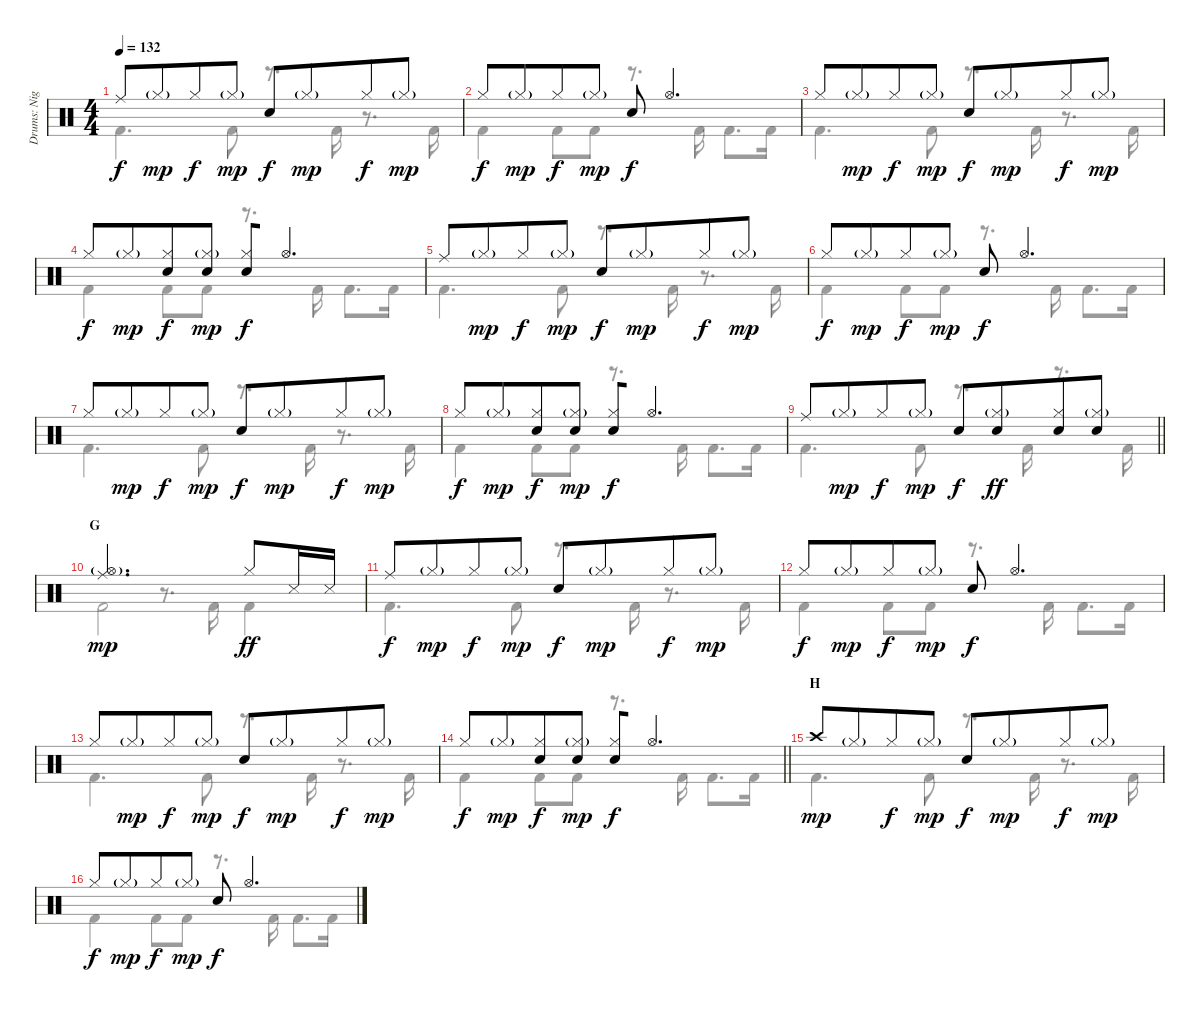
\track ("Drums: Nigel Ollson" "Drums: Nig") {instrument percussion}
\staff {score}
\articulation defaults
\voice
\ts (4 4)
\tempo 132
\clef neutral
\ks c "Ride (middle)".8{dy f} "Hi-Hat (closed)"{g}.8{dy mp beam merge} "Hi-Hat (closed)".8{dy f} "Hi-Hat (closed)"{g}.8{dy mp} "Electric Snare (hit)".8{dy f} "Hi-Hat (closed)"{g}.8{dy mp beam merge} "Hi-Hat (closed)".8{dy f} "Hi-Hat (closed)"{g}.8{dy mp}
|
"Hi-Hat (closed)".8{dy f} "Hi-Hat (closed)"{g}.8{dy mp beam merge} "Hi-Hat (closed)".8{dy f} "Hi-Hat (closed)"{g}.8{dy mp} "Electric Snare (hit)".8{dy f} "Hi-Hat (open)".4{d} |
"Hi-Hat (closed)".8 "Hi-Hat (closed)"{g}.8{dy mp beam merge} "Hi-Hat (closed)".8{dy f} "Hi-Hat (closed)"{g}.8{dy mp} "Electric Snare (hit)".8{dy f} "Hi-Hat (closed)"{g}.8{dy mp beam merge} "Hi-Hat (closed)".8{dy f} "Hi-Hat (closed)"{g}.8{dy mp} |
"Hi-Hat (closed)".8{dy f} "Hi-Hat (closed)"{g}.8{dy mp beam merge} ("Hi-Hat (closed)" "Electric Snare (hit)").8{dy f} ("Hi-Hat (closed)"{g} "Electric Snare (hit)").8{dy mp} ("Hi-Hat (closed)" "Electric Snare (hit)").8{dy f beam merge} "Hi-Hat (open)".4{d} |
"Ride (middle)".8 "Hi-Hat (closed)"{g}.8{dy mp beam merge} "Hi-Hat (closed)".8{dy f} "Hi-Hat (closed)"{g}.8{dy mp} "Electric Snare (hit)".8{dy f} "Hi-Hat (closed)"{g}.8{dy mp beam merge} "Hi-Hat (closed)".8{dy f} "Hi-Hat (closed)"{g}.8{dy mp} |
"Hi-Hat (closed)".8{dy f} "Hi-Hat (closed)"{g}.8{dy mp beam merge} "Hi-Hat (closed)".8{dy f} "Hi-Hat (closed)"{g}.8{dy mp} "Electric Snare (hit)".8{dy f} "Hi-Hat (open)".4{d} |
"Hi-Hat (closed)".8 "Hi-Hat (closed)"{g}.8{dy mp beam merge} "Hi-Hat (closed)".8{dy f} "Hi-Hat (closed)"{g}.8{dy mp} "Electric Snare (hit)".8{dy f} "Hi-Hat (closed)"{g}.8{dy mp beam merge} "Hi-Hat (closed)".8{dy f} "Hi-Hat (closed)"{g}.8{dy mp} |
"Hi-Hat (closed)".8{dy f} "Hi-Hat (closed)"{g}.8{dy mp beam merge} ("Hi-Hat (closed)" "Electric Snare (hit)").8{dy f} ("Hi-Hat (closed)"{g} "Electric Snare (hit)").8{dy mp} ("Hi-Hat (closed)" "Electric Snare (hit)").8{dy f beam merge} "Hi-Hat (open)".4{d} |
\barLineRight lightlight "Ride (middle)".8 "Hi-Hat (closed)"{g}.8{dy mp beam merge} "Hi-Hat (closed)".8{dy f} "Hi-Hat (closed)"{g}.8{dy mp} "Electric Snare (hit)".8{dy f}
("Hi-Hat (closed)"{g} "Electric Snare (hit)").8{dy ff beam merge} ("Hi-Hat (closed)" "Electric Snare (hit)").8 ("Hi-Hat (closed)"{g} "Snare (hit) 2").8 |
\section ("" "G")
("Ride (middle)" "Hi-Hat (open)"{g}).2{d dy mp} "Hi-Hat (closed)".8{dy ff} "Snare (side stick) 3".16 "Snare (side stick) 3".16 |
"Ride (middle)".8{dy f} "Hi-Hat (closed)"{g}.8{dy mp beam merge} "Hi-Hat (closed)".8{dy f} "Hi-Hat (closed)"{g}.8{dy mp} "Electric Snare (hit)".8{dy f} "Hi-Hat (closed)"{g}.8{dy mp beam merge} "Hi-Hat (closed)".8{dy f} "Hi-Hat (closed)"{g}.8{dy mp} |
"Hi-Hat (closed)".8{dy f} "Hi-Hat (closed)"{g}.8{dy mp beam merge} "Hi-Hat (closed)".8{dy f} "Hi-Hat (closed)"{g}.8{dy mp} "Electric Snare (hit)".8{dy f} "Hi-Hat (open)".4{d} |
"Hi-Hat (closed)".8 "Hi-Hat (closed)"{g}.8{dy mp beam merge} "Hi-Hat (closed)".8{dy f} "Hi-Hat (closed)"{g}.8{dy mp} "Electric Snare (hit)".8{dy f} "Hi-Hat (closed)"{g}.8{dy mp beam merge} "Hi-Hat (closed)".8{dy f} "Hi-Hat (closed)"{g}.8{dy mp} |
\barLineRight lightlight "Hi-Hat (closed)".8{dy f} "Hi-Hat (closed)"{g}.8{dy mp beam merge}
("Hi-Hat (closed)" "Electric Snare (hit)").8{dy f} ("Hi-Hat (closed)"{g} "Electric Snare (hit)").8{dy mp} ("Hi-Hat (closed)" "Electric Snare (hit)").8{dy f beam merge} "Hi-Hat (open)".4{d} |
\section ("" "H")
"Crash high (hit)".8{dy mp} "Hi-Hat (closed)"{g}.8{beam merge} "Hi-Hat (closed)".8{dy f} "Hi-Hat (closed)"{g}.8{dy mp} "Electric Snare (hit)".8{dy f} "Hi-Hat (closed)"{g}.8{dy mp beam merge} "Hi-Hat (closed)".8{dy f} "Hi-Hat (closed)"{g}.8{dy mp} |
"Hi-Hat (closed)".8{dy f} "Hi-Hat (closed)"{g}.8{dy mp beam merge} "Hi-Hat (closed)".8{dy f} "Hi-Hat (closed)"{g}.8{dy mp} "Electric Snare (hit)".8{dy f} "Hi-Hat (open)".4{d}
\voice
\clef neutral
\ottava regular
\simile none
\ks c "Kick (hit) 2".4{d dy f} "Kick (hit) 2".8
r.8{d} "Kick (hit) 2".16 r.8{d} "Kick (hit) 2".16 |
"Kick (hit) 2".4 "Kick (hit) 2".8 "Kick (hit) 2".8 r.8{d} "Kick (hit) 2".16 "Kick (hit) 2".8{d} "Kick (hit) 2".16 |
"Kick (hit) 2".4{d} "Kick (hit) 2".8 r.8{d} "Kick (hit) 2".16 r.8{d} "Kick (hit) 2".16 |
"Kick (hit) 2".4 "Kick (hit) 2".8 "Kick (hit) 2".8 r.8{d} "Kick (hit) 2".16 "Kick (hit) 2".8{d} "Kick (hit) 2".16 |
"Kick (hit) 2".4{d} "Kick (hit) 2".8 r.8{d} "Kick (hit) 2".16 r.8{d} "Kick (hit) 2".16 |
"Kick (hit) 2".4 "Kick (hit) 2".8 "Kick (hit) 2".8 r.8{d} "Kick (hit) 2".16 "Kick (hit) 2".8{d} "Kick (hit) 2".16 |
"Kick (hit) 2".4{d} "Kick (hit) 2".8 r.8{d} "Kick (hit) 2".16 r.8{d} "Kick (hit) 2".16 |
"Kick (hit) 2".4 "Kick (hit) 2".8 "Kick (hit) 2".8 r.8{d} "Kick (hit) 2".16 "Kick (hit) 2".8{d} "Kick (hit) 2".16 |
\barLineRight lightlight "Kick (hit) 2".4{d} "Kick (hit) 2".8
r.8{d} "Kick (hit) 2".16 r.8{d} "Kick (hit) 2".16 |
"Kick (hit) 2".2 r.8{d} "Kick (hit) 2".16 "Kick (hit) 2".4 |
"Kick (hit) 2".4{d} "Kick (hit) 2".8 r.8{d} "Kick (hit) 2".16 r.8{d} "Kick (hit) 2".16 |
"Kick (hit) 2".4 "Kick (hit) 2".8 "Kick (hit) 2".8 r.8{d} "Kick (hit) 2".16 "Kick (hit) 2".8{d} "Kick (hit) 2".16 |
"Kick (hit) 2".4{d} "Kick (hit) 2".8 r.8{d} "Kick (hit) 2".16 r.8{d} "Kick (hit) 2".16 |
\barLineRight lightlight "Kick (hit) 2".4 "Kick (hit) 2".8 "Kick (hit) 2".8
r.8{d} "Kick (hit) 2".16 "Kick (hit) 2".8{d} "Kick (hit) 2".16 |
"Kick (hit) 2".4{d} "Kick (hit) 2".8 r.8{d} "Kick (hit) 2".16 r.8{d} "Kick (hit) 2".16 |
"Kick (hit) 2".4 "Kick (hit) 2".8 "Kick (hit) 2".8 r.8{d} "Kick (hit) 2".16 "Kick (hit) 2".8{d} "Kick (hit) 2".16
